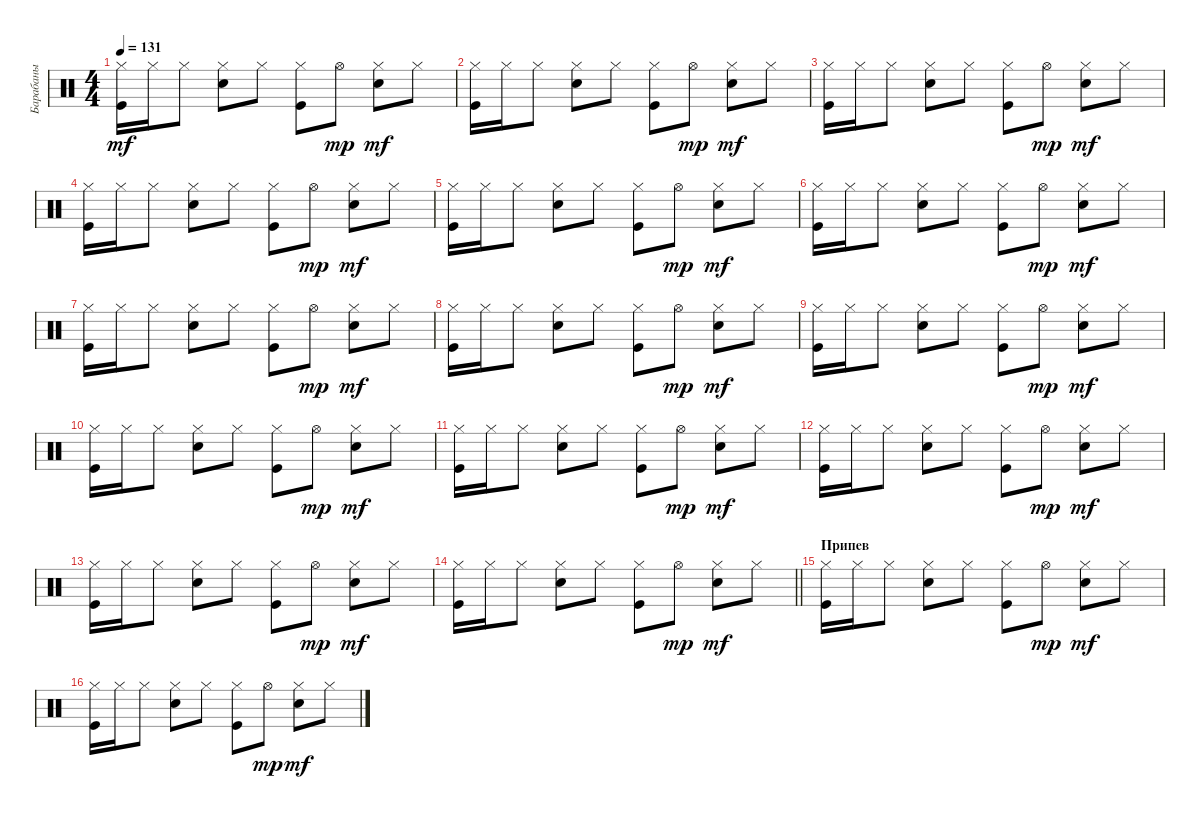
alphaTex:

\track ("Барабаны" "Барабаны") {instrument percussion}
\staff {score}
\articulation defaults
\ts (4 4)
\tempo 131
\clef neutral
\ks c
("Kick (hit)" "Hi-Hat (closed)").16{dy mf} "Hi-Hat (closed)".16 "Hi-Hat (closed)".8 ("Snare (hit) 2" "Hi-Hat (closed)").8 "Hi-Hat (closed)".8 ("Kick (hit)" "Hi-Hat (closed)").8 "Hi-Hat (open)".8{dy mp} ("Snare (hit) 2" "Hi-Hat (closed)").8{dy mf} "Hi-Hat (closed)".8 |
("Kick (hit)" "Hi-Hat (closed)").16 "Hi-Hat (closed)".16 "Hi-Hat (closed)".8 ("Snare (hit) 2" "Hi-Hat (closed)").8 "Hi-Hat (closed)".8 ("Kick (hit)" "Hi-Hat (closed)").8 "Hi-Hat (open)".8{dy mp} ("Snare (hit) 2" "Hi-Hat (closed)").8{dy mf} "Hi-Hat (closed)".8 |
("Kick (hit)" "Hi-Hat (closed)").16 "Hi-Hat (closed)".16 "Hi-Hat (closed)".8 ("Snare (hit) 2" "Hi-Hat (closed)").8 "Hi-Hat (closed)".8 ("Kick (hit)" "Hi-Hat (closed)").8 "Hi-Hat (open)".8{dy mp} ("Snare (hit) 2" "Hi-Hat (closed)").8{dy mf} "Hi-Hat (closed)".8 |
("Kick (hit)" "Hi-Hat (closed)").16 "Hi-Hat (closed)".16 "Hi-Hat (closed)".8 ("Snare (hit) 2" "Hi-Hat (closed)").8 "Hi-Hat (closed)".8 ("Kick (hit)" "Hi-Hat (closed)").8 "Hi-Hat (open)".8{dy mp} ("Snare (hit) 2" "Hi-Hat (closed)").8{dy mf} "Hi-Hat (closed)".8 |
("Kick (hit)" "Hi-Hat (closed)").16 "Hi-Hat (closed)".16 "Hi-Hat (closed)".8 ("Snare (hit) 2" "Hi-Hat (closed)").8 "Hi-Hat (closed)".8 ("Kick (hit)" "Hi-Hat (closed)").8 "Hi-Hat (open)".8{dy mp} ("Snare (hit) 2" "Hi-Hat (closed)").8{dy mf} "Hi-Hat (closed)".8 |
("Kick (hit)" "Hi-Hat (closed)").16 "Hi-Hat (closed)".16 "Hi-Hat (closed)".8 ("Snare (hit) 2" "Hi-Hat (closed)").8 "Hi-Hat (closed)".8 ("Kick (hit)" "Hi-Hat (closed)").8 "Hi-Hat (open)".8{dy mp} ("Snare (hit) 2" "Hi-Hat (closed)").8{dy mf} "Hi-Hat (closed)".8 |
("Kick (hit)" "Hi-Hat (closed)").16 "Hi-Hat (closed)".16 "Hi-Hat (closed)".8 ("Snare (hit) 2" "Hi-Hat (closed)").8 "Hi-Hat (closed)".8 ("Kick (hit)" "Hi-Hat (closed)").8 "Hi-Hat (open)".8{dy mp} ("Snare (hit) 2" "Hi-Hat (closed)").8{dy mf} "Hi-Hat (closed)".8 |
("Kick (hit)" "Hi-Hat (closed)").16 "Hi-Hat (closed)".16 "Hi-Hat (closed)".8 ("Snare (hit) 2" "Hi-Hat (closed)").8 "Hi-Hat (closed)".8 ("Kick (hit)" "Hi-Hat (closed)").8 "Hi-Hat (open)".8{dy mp} ("Snare (hit) 2" "Hi-Hat (closed)").8{dy mf} "Hi-Hat (closed)".8 |
("Kick (hit)" "Hi-Hat (closed)").16 "Hi-Hat (closed)".16 "Hi-Hat (closed)".8 ("Snare (hit) 2" "Hi-Hat (closed)").8 "Hi-Hat (closed)".8 ("Kick (hit)" "Hi-Hat (closed)").8 "Hi-Hat (open)".8{dy mp} ("Snare (hit) 2" "Hi-Hat (closed)").8{dy mf} "Hi-Hat (closed)".8 |
("Kick (hit)" "Hi-Hat (closed)").16 "Hi-Hat (closed)".16 "Hi-Hat (closed)".8 ("Snare (hit) 2" "Hi-Hat (closed)").8 "Hi-Hat (closed)".8 ("Kick (hit)" "Hi-Hat (closed)").8 "Hi-Hat (open)".8{dy mp} ("Snare (hit) 2" "Hi-Hat (closed)").8{dy mf} "Hi-Hat (closed)".8 |
("Kick (hit)" "Hi-Hat (closed)").16 "Hi-Hat (closed)".16 "Hi-Hat (closed)".8 ("Snare (hit) 2" "Hi-Hat (closed)").8 "Hi-Hat (closed)".8 ("Kick (hit)" "Hi-Hat (closed)").8 "Hi-Hat (open)".8{dy mp} ("Snare (hit) 2" "Hi-Hat (closed)").8{dy mf} "Hi-Hat (closed)".8 |
("Kick (hit)" "Hi-Hat (closed)").16 "Hi-Hat (closed)".16 "Hi-Hat (closed)".8 ("Snare (hit) 2" "Hi-Hat (closed)").8 "Hi-Hat (closed)".8 ("Kick (hit)" "Hi-Hat (closed)").8 "Hi-Hat (open)".8{dy mp} ("Snare (hit) 2" "Hi-Hat (closed)").8{dy mf} "Hi-Hat (closed)".8 |
("Kick (hit)" "Hi-Hat (closed)").16 "Hi-Hat (closed)".16 "Hi-Hat (closed)".8 ("Snare (hit) 2" "Hi-Hat (closed)").8 "Hi-Hat (closed)".8 ("Kick (hit)" "Hi-Hat (closed)").8 "Hi-Hat (open)".8{dy mp} ("Snare (hit) 2" "Hi-Hat (closed)").8{dy mf} "Hi-Hat (closed)".8 |
\barLineRight lightlight
("Kick (hit)" "Hi-Hat (closed)").16 "Hi-Hat (closed)".16 "Hi-Hat (closed)".8 ("Snare (hit) 2" "Hi-Hat (closed)").8 "Hi-Hat (closed)".8 ("Kick (hit)" "Hi-Hat (closed)").8 "Hi-Hat (open)".8{dy mp} ("Snare (hit) 2" "Hi-Hat (closed)").8{dy mf} "Hi-Hat (closed)".8 |
\section ("" "Припев")
("Kick (hit)" "Hi-Hat (closed)").16 "Hi-Hat (closed)".16 "Hi-Hat (closed)".8 ("Snare (hit) 2" "Hi-Hat (closed)").8 "Hi-Hat (closed)".8 ("Kick (hit)" "Hi-Hat (closed)").8 "Hi-Hat (open)".8{dy mp} ("Snare (hit) 2" "Hi-Hat (closed)").8{dy mf} "Hi-Hat (closed)".8 |
("Kick (hit)" "Hi-Hat (closed)").16 "Hi-Hat (closed)".16 "Hi-Hat (closed)".8 ("Snare (hit) 2" "Hi-Hat (closed)").8 "Hi-Hat (closed)".8 ("Kick (hit)" "Hi-Hat (closed)").8 "Hi-Hat (open)".8{dy mp} ("Snare (hit) 2" "Hi-Hat (closed)").8{dy mf} "Hi-Hat (closed)".8
